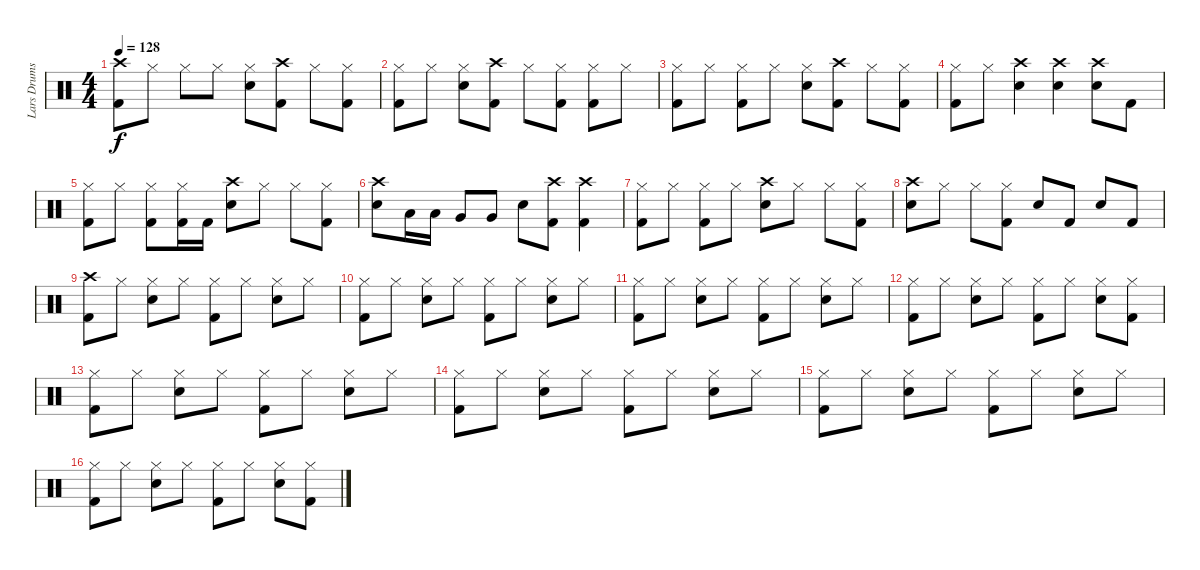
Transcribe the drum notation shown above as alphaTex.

\track ("Lars Drums" "Lars Drums") {instrument percussion}
\staff {score}
\articulation defaults
\ts (4 4)
\tempo 128
\clef neutral
\ks c
("Crash high (hit)" "Kick (hit) 2").8{dy f} "Hi-Hat (closed)".8 "Hi-Hat (closed)".8 "Hi-Hat (closed)".8 ("Hi-Hat (closed)" "Electric Snare (hit)").8 ("Crash high (hit)" "Kick (hit) 2").8 "Hi-Hat (closed)".8 ("Hi-Hat (closed)" "Kick (hit) 2").8 |
("Hi-Hat (closed)" "Kick (hit) 2").8 "Hi-Hat (closed)".8 ("Hi-Hat (closed)" "Electric Snare (hit)").8 ("Crash high (hit)" "Kick (hit) 2").8 "Hi-Hat (closed)".8 ("Hi-Hat (closed)" "Kick (hit) 2").8 ("Hi-Hat (closed)" "Kick (hit) 2").8 "Hi-Hat (closed)".8 |
("Hi-Hat (closed)" "Kick (hit) 2").8 "Hi-Hat (closed)".8 ("Hi-Hat (closed)" "Kick (hit) 2").8 "Hi-Hat (closed)".8 ("Hi-Hat (closed)" "Electric Snare (hit)").8 ("Crash high (hit)" "Kick (hit) 2").8 "Hi-Hat (closed)".8 ("Hi-Hat (closed)" "Kick (hit) 2").8 |
("Hi-Hat (closed)" "Kick (hit) 2").8 "Hi-Hat (closed)".8 ("Crash high (hit)" "Electric Snare (hit)").4 ("Crash high (hit)" "Electric Snare (hit)").4 ("Crash high (hit)" "Electric Snare (hit)").8 "Kick (hit) 2".8 |
("Hi-Hat (closed)" "Kick (hit) 2").8 "Hi-Hat (closed)".8 ("Hi-Hat (closed)" "Kick (hit) 2").8 ("Hi-Hat (closed)" "Kick (hit) 2").16 "Kick (hit) 2".16 ("Crash high (hit)" "Electric Snare (hit)").8 "Hi-Hat (closed)".8 "Hi-Hat (closed)".8 ("Hi-Hat (closed)" "Kick (hit) 2").8 |
("Crash high (hit)" "Electric Snare (hit)").8 "Low Floor Tom (hit)".16 "Low Floor Tom (hit)".16 "Very Low Tom (hit)".8 "Very Low Tom (hit)".8 "Electric Snare (hit)".8 ("Crash high (hit)" "Kick (hit) 2").8 ("Crash high (hit)" "Kick (hit) 2").4 |
("Hi-Hat (closed)" "Kick (hit) 2").8 "Hi-Hat (closed)".8 ("Hi-Hat (closed)" "Kick (hit) 2").8 "Hi-Hat (closed)".8 ("Crash high (hit)" "Electric Snare (hit)").8 "Hi-Hat (closed)".8 "Hi-Hat (closed)".8 ("Hi-Hat (closed)" "Kick (hit) 2").8 |
("Crash high (hit)" "Electric Snare (hit)").8 "Hi-Hat (closed)".8 "Hi-Hat (closed)".8 ("Hi-Hat (closed)" "Kick (hit) 2").8 "Electric Snare (hit)".8 "Kick (hit) 2".8 "Electric Snare (hit)".8 "Kick (hit) 2".8 |
("Crash high (hit)" "Kick (hit) 2").8 "Hi-Hat (closed)".8 ("Hi-Hat (closed)" "Electric Snare (hit)").8 "Hi-Hat (closed)".8 ("Hi-Hat (closed)" "Kick (hit) 2").8 "Hi-Hat (closed)".8 ("Hi-Hat (closed)" "Electric Snare (hit)").8 "Hi-Hat (closed)".8 |
("Hi-Hat (closed)" "Kick (hit) 2").8 "Hi-Hat (closed)".8 ("Hi-Hat (closed)" "Electric Snare (hit)").8 "Hi-Hat (closed)".8 ("Hi-Hat (closed)" "Kick (hit) 2").8 "Hi-Hat (closed)".8 ("Hi-Hat (closed)" "Electric Snare (hit)").8 "Hi-Hat (closed)".8 |
("Hi-Hat (closed)" "Kick (hit) 2").8 "Hi-Hat (closed)".8 ("Hi-Hat (closed)" "Electric Snare (hit)").8 "Hi-Hat (closed)".8 ("Hi-Hat (closed)" "Kick (hit) 2").8 "Hi-Hat (closed)".8 ("Hi-Hat (closed)" "Electric Snare (hit)").8 "Hi-Hat (closed)".8 |
("Hi-Hat (closed)" "Kick (hit) 2").8 "Hi-Hat (closed)".8 ("Hi-Hat (closed)" "Electric Snare (hit)").8 "Hi-Hat (closed)".8 ("Hi-Hat (closed)" "Kick (hit) 2").8 "Hi-Hat (closed)".8 ("Hi-Hat (closed)" "Electric Snare (hit)").8 ("Hi-Hat (closed)" "Kick (hit) 2").8 |
("Hi-Hat (closed)" "Kick (hit) 2").8 "Hi-Hat (closed)".8 ("Hi-Hat (closed)" "Electric Snare (hit)").8 "Hi-Hat (closed)".8 ("Hi-Hat (closed)" "Kick (hit) 2").8 "Hi-Hat (closed)".8 ("Hi-Hat (closed)" "Electric Snare (hit)").8 "Hi-Hat (closed)".8 |
("Hi-Hat (closed)" "Kick (hit) 2").8 "Hi-Hat (closed)".8 ("Hi-Hat (closed)" "Electric Snare (hit)").8 "Hi-Hat (closed)".8 ("Hi-Hat (closed)" "Kick (hit) 2").8 "Hi-Hat (closed)".8 ("Hi-Hat (closed)" "Electric Snare (hit)").8 "Hi-Hat (closed)".8 |
("Hi-Hat (closed)" "Kick (hit) 2").8 "Hi-Hat (closed)".8 ("Hi-Hat (closed)" "Electric Snare (hit)").8 "Hi-Hat (closed)".8 ("Hi-Hat (closed)" "Kick (hit) 2").8 "Hi-Hat (closed)".8 ("Hi-Hat (closed)" "Electric Snare (hit)").8 "Hi-Hat (closed)".8 |
("Hi-Hat (closed)" "Kick (hit) 2").8 "Hi-Hat (closed)".8 ("Hi-Hat (closed)" "Electric Snare (hit)").8 "Hi-Hat (closed)".8 ("Hi-Hat (closed)" "Kick (hit) 2").8 "Hi-Hat (closed)".8 ("Hi-Hat (closed)" "Electric Snare (hit)").8 ("Hi-Hat (closed)" "Kick (hit) 2").8
